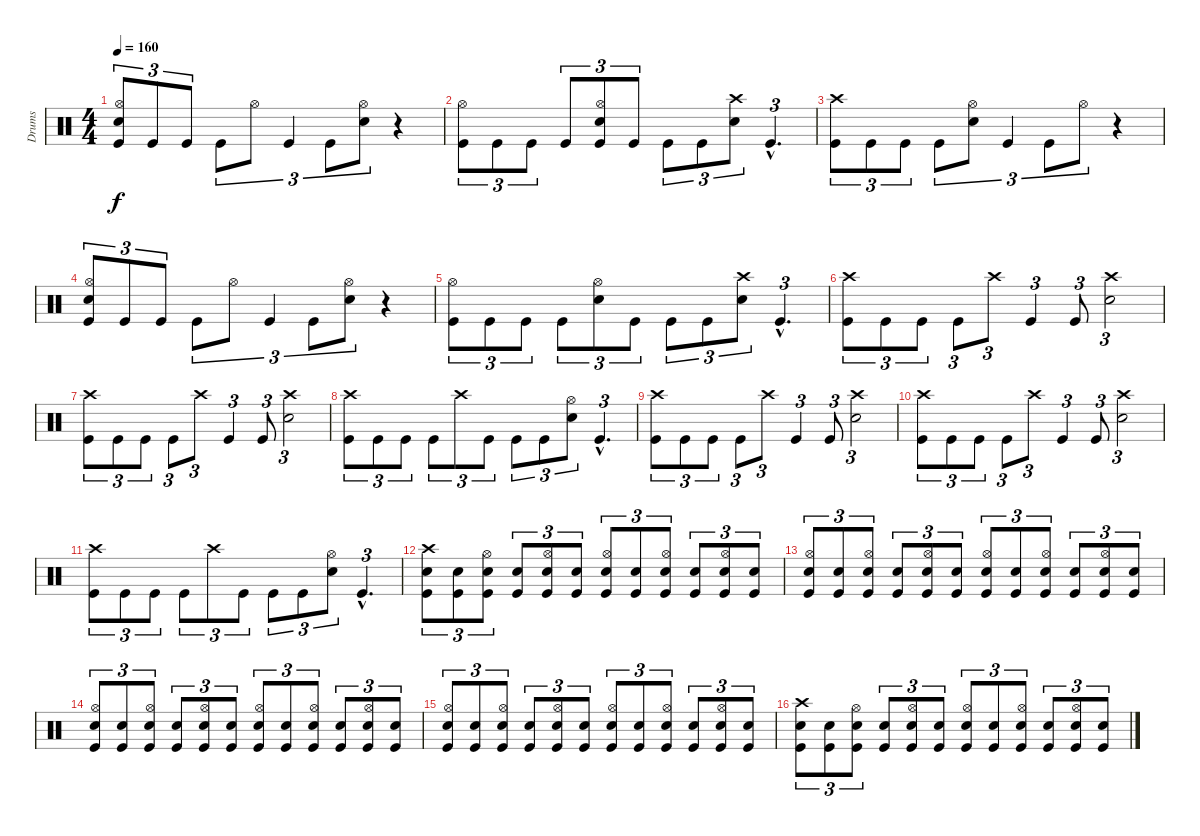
\track ("Drums" "Drums") {instrument percussion}
\staff {score}
\articulation defaults
\ts (4 4)
\tempo 160
\clef neutral
\ks c
("Electric Snare (hit)" "Hi-Hat (open)" "Kick (hit)").8{tu (3 2) dy f} "Kick (hit)".8{tu (3 2)} "Kick (hit)".8{tu (3 2)} "Kick (hit)".8{tu (3 2)} "Hi-Hat (open)".8{tu (3 2)} "Kick (hit)".4{tu (3 2)} "Kick (hit)".8{tu (3 2)} ("Electric Snare (hit)" "Hi-Hat (open)").8{tu (3 2)} r.4 |
("Hi-Hat (open)" "Kick (hit)").8{tu (3 2)} "Kick (hit)".8{tu (3 2)} "Kick (hit)".8{tu (3 2)} "Kick (hit)".8{tu (3 2)} ("Kick (hit)" "Hi-Hat (open)" "Electric Snare (hit)").8{tu (3 2)} "Kick (hit)".8{tu (3 2)} "Kick (hit)".8{tu (3 2)} "Kick (hit)".8{tu (3 2)} ("Crash high (hit)" "Electric Snare (hit)").8{tu (3 2)} "Kick (hit)"{hac}.4{d tu (3 2)} |
("Crash high (hit)" "Kick (hit)").8{tu (3 2)} "Kick (hit)".8{tu (3 2)} "Kick (hit)".8{tu (3 2)} "Kick (hit)".8{tu (3 2)} ("Electric Snare (hit)" "Hi-Hat (open)").8{tu (3 2)} "Kick (hit)".4{tu (3 2)} "Kick (hit)".8{tu (3 2)} "Hi-Hat (open)".8{tu (3 2)} r.4 |
("Electric Snare (hit)" "Hi-Hat (open)" "Kick (hit)").8{tu (3 2)} "Kick (hit)".8{tu (3 2)} "Kick (hit)".8{tu (3 2)} "Kick (hit)".8{tu (3 2)} "Hi-Hat (open)".8{tu (3 2)} "Kick (hit)".4{tu (3 2)} "Kick (hit)".8{tu (3 2)} ("Electric Snare (hit)" "Hi-Hat (open)").8{tu (3 2)} r.4 |
("Hi-Hat (open)" "Kick (hit)").8{tu (3 2)} "Kick (hit)".8{tu (3 2)} "Kick (hit)".8{tu (3 2)} "Kick (hit)".8{tu (3 2)} ("Hi-Hat (open)" "Electric Snare (hit)").8{tu (3 2)} "Kick (hit)".8{tu (3 2)} "Kick (hit)".8{tu (3 2)} "Kick (hit)".8{tu (3 2)} ("Crash high (hit)" "Electric Snare (hit)").8{tu (3 2)} "Kick (hit)"{hac}.4{d tu (3 2)} |
("Crash high (hit)" "Kick (hit)").8{tu (3 2)} "Kick (hit)".8{tu (3 2)} "Kick (hit)".8{tu (3 2)} "Kick (hit)".8{tu (3 2)} "Crash high (hit)".8{tu (3 2)} "Kick (hit)".4{tu (3 2)} "Kick (hit)".8{tu (3 2)} ("Crash high (hit)" "Electric Snare (hit)").2{tu (3 2)} |
("Crash high (hit)" "Kick (hit)").8{tu (3 2)} "Kick (hit)".8{tu (3 2)} "Kick (hit)".8{tu (3 2)} "Kick (hit)".8{tu (3 2)} "Crash high (hit)".8{tu (3 2)} "Kick (hit)".4{tu (3 2)} "Kick (hit)".8{tu (3 2)} ("Crash high (hit)" "Electric Snare (hit)").2{tu (3 2)} |
("Crash high (hit)" "Kick (hit)").8{tu (3 2)} "Kick (hit)".8{tu (3 2)} "Kick (hit)".8{tu (3 2)} "Kick (hit)".8{tu (3 2)} "Crash high (hit)".8{tu (3 2)} "Kick (hit)".8{tu (3 2)} "Kick (hit)".8{tu (3 2)} "Kick (hit)".8{tu (3 2)} ("Hi-Hat (open)" "Electric Snare (hit)").8{tu (3 2)} "Kick (hit)"{hac}.4{d tu (3 2)} |
("Crash high (hit)" "Kick (hit)").8{tu (3 2)} "Kick (hit)".8{tu (3 2)} "Kick (hit)".8{tu (3 2)} "Kick (hit)".8{tu (3 2)} "Crash high (hit)".8{tu (3 2)} "Kick (hit)".4{tu (3 2)} "Kick (hit)".8{tu (3 2)} ("Crash high (hit)" "Electric Snare (hit)").2{tu (3 2)} |
("Crash high (hit)" "Kick (hit)").8{tu (3 2)} "Kick (hit)".8{tu (3 2)} "Kick (hit)".8{tu (3 2)} "Kick (hit)".8{tu (3 2)} "Crash high (hit)".8{tu (3 2)} "Kick (hit)".4{tu (3 2)} "Kick (hit)".8{tu (3 2)} ("Crash high (hit)" "Electric Snare (hit)").2{tu (3 2)} |
("Crash high (hit)" "Kick (hit)").8{tu (3 2)} "Kick (hit)".8{tu (3 2)} "Kick (hit)".8{tu (3 2)} "Kick (hit)".8{tu (3 2)} "Crash high (hit)".8{tu (3 2)} "Kick (hit)".8{tu (3 2)} "Kick (hit)".8{tu (3 2)} "Kick (hit)".8{tu (3 2)} ("Hi-Hat (open)" "Electric Snare (hit)").8{tu (3 2)} "Kick (hit)"{hac}.4{d tu (3 2)} |
("Crash high (hit)" "Electric Snare (hit)" "Kick (hit)").8{tu (3 2)} ("Electric Snare (hit)" "Kick (hit)").8{tu (3 2)} ("Hi-Hat (open)" "Electric Snare (hit)" "Kick (hit)").8{tu (3 2)} ("Electric Snare (hit)" "Kick (hit)").8{tu (3 2)} ("Hi-Hat (open)" "Electric Snare (hit)" "Kick (hit)").8{tu (3 2)} ("Electric Snare (hit)" "Kick (hit)").8{tu (3 2)} ("Hi-Hat (open)" "Electric Snare (hit)" "Kick (hit)").8{tu (3 2)} ("Electric Snare (hit)" "Kick (hit)").8{tu (3 2)} ("Hi-Hat (open)" "Electric Snare (hit)" "Kick (hit)").8{tu (3 2)} ("Electric Snare (hit)" "Kick (hit)").8{tu (3 2)} ("Hi-Hat (open)" "Electric Snare (hit)" "Kick (hit)").8{tu (3 2)} ("Electric Snare (hit)" "Kick (hit)").8{tu (3 2)} |
("Hi-Hat (open)" "Electric Snare (hit)" "Kick (hit)").8{tu (3 2)} ("Electric Snare (hit)" "Kick (hit)").8{tu (3 2)} ("Hi-Hat (open)" "Electric Snare (hit)" "Kick (hit)").8{tu (3 2)} ("Electric Snare (hit)" "Kick (hit)").8{tu (3 2)} ("Hi-Hat (open)" "Electric Snare (hit)" "Kick (hit)").8{tu (3 2)} ("Electric Snare (hit)" "Kick (hit)").8{tu (3 2)} ("Hi-Hat (open)" "Electric Snare (hit)" "Kick (hit)").8{tu (3 2)} ("Electric Snare (hit)" "Kick (hit)").8{tu (3 2)} ("Hi-Hat (open)" "Electric Snare (hit)" "Kick (hit)").8{tu (3 2)} ("Electric Snare (hit)" "Kick (hit)").8{tu (3 2)} ("Hi-Hat (open)" "Electric Snare (hit)" "Kick (hit)").8{tu (3 2)} ("Electric Snare (hit)" "Kick (hit)").8{tu (3 2)} |
("Hi-Hat (open)" "Electric Snare (hit)" "Kick (hit)").8{tu (3 2)} ("Electric Snare (hit)" "Kick (hit)").8{tu (3 2)} ("Hi-Hat (open)" "Electric Snare (hit)" "Kick (hit)").8{tu (3 2)} ("Electric Snare (hit)" "Kick (hit)").8{tu (3 2)} ("Hi-Hat (open)" "Electric Snare (hit)" "Kick (hit)").8{tu (3 2)} ("Electric Snare (hit)" "Kick (hit)").8{tu (3 2)} ("Hi-Hat (open)" "Electric Snare (hit)" "Kick (hit)").8{tu (3 2)} ("Electric Snare (hit)" "Kick (hit)").8{tu (3 2)} ("Hi-Hat (open)" "Electric Snare (hit)" "Kick (hit)").8{tu (3 2)} ("Electric Snare (hit)" "Kick (hit)").8{tu (3 2)} ("Hi-Hat (open)" "Electric Snare (hit)" "Kick (hit)").8{tu (3 2)} ("Electric Snare (hit)" "Kick (hit)").8{tu (3 2)} |
("Hi-Hat (open)" "Electric Snare (hit)" "Kick (hit)").8{tu (3 2)} ("Electric Snare (hit)" "Kick (hit)").8{tu (3 2)} ("Hi-Hat (open)" "Electric Snare (hit)" "Kick (hit)").8{tu (3 2)} ("Electric Snare (hit)" "Kick (hit)").8{tu (3 2)} ("Hi-Hat (open)" "Electric Snare (hit)" "Kick (hit)").8{tu (3 2)} ("Electric Snare (hit)" "Kick (hit)").8{tu (3 2)} ("Hi-Hat (open)" "Electric Snare (hit)" "Kick (hit)").8{tu (3 2)} ("Electric Snare (hit)" "Kick (hit)").8{tu (3 2)} ("Hi-Hat (open)" "Electric Snare (hit)" "Kick (hit)").8{tu (3 2)} ("Electric Snare (hit)" "Kick (hit)").8{tu (3 2)} ("Hi-Hat (open)" "Electric Snare (hit)" "Kick (hit)").8{tu (3 2)} ("Electric Snare (hit)" "Kick (hit)").8{tu (3 2)} |
("Crash high (hit)" "Electric Snare (hit)" "Kick (hit)").8{tu (3 2)} ("Electric Snare (hit)" "Kick (hit)").8{tu (3 2)} ("Hi-Hat (open)" "Electric Snare (hit)" "Kick (hit)").8{tu (3 2)} ("Electric Snare (hit)" "Kick (hit)").8{tu (3 2)} ("Hi-Hat (open)" "Electric Snare (hit)" "Kick (hit)").8{tu (3 2)} ("Electric Snare (hit)" "Kick (hit)").8{tu (3 2)} ("Hi-Hat (open)" "Electric Snare (hit)" "Kick (hit)").8{tu (3 2)} ("Electric Snare (hit)" "Kick (hit)").8{tu (3 2)} ("Hi-Hat (open)" "Electric Snare (hit)" "Kick (hit)").8{tu (3 2)} ("Electric Snare (hit)" "Kick (hit)").8{tu (3 2)} ("Hi-Hat (open)" "Electric Snare (hit)" "Kick (hit)").8{tu (3 2)} ("Electric Snare (hit)" "Kick (hit)").8{tu (3 2)}
